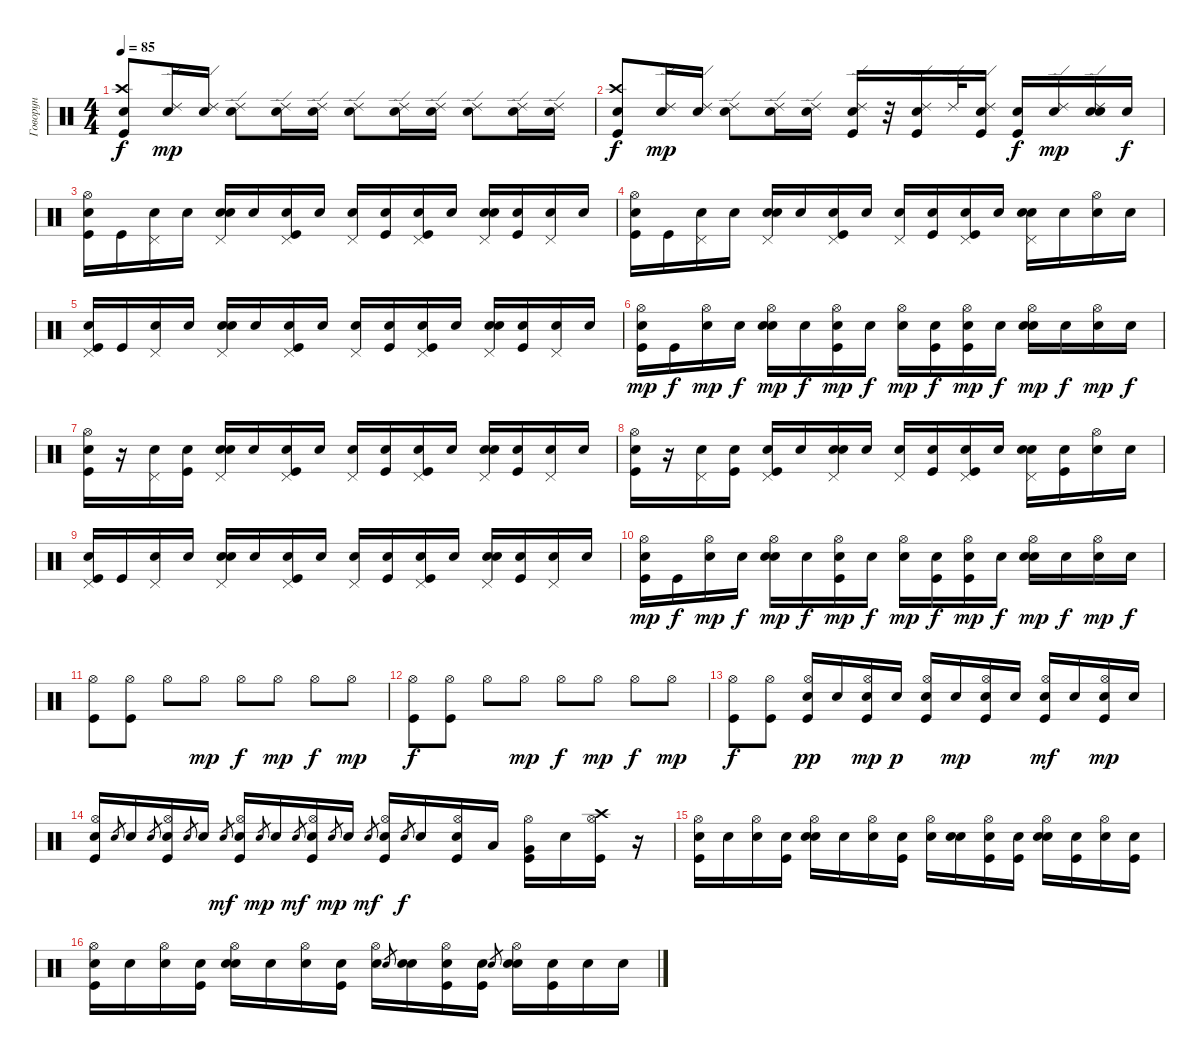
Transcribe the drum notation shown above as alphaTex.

\track ("Говорун" "Говорун") {instrument percussion}
\staff {score}
\articulation defaults
\ts (4 4)
\tempo 85
\clef neutral
\ks c
("Kick (hit)" "Crash high (hit)" "Snare (hit)"{x}).8{dy f} ("Ride (edge) 2" "Snare (hit)"{x}).16{dy mp} ("Ride (edge) 2" "Snare (hit)"{x}).16 ("Ride (edge) 2" "Snare (hit)"{x}).8 ("Ride (edge) 2" "Snare (hit)"{x}).16 ("Ride (edge) 2" "Snare (hit)"{x}).16 ("Ride (edge) 2" "Snare (hit)"{x}).8 ("Ride (edge) 2" "Snare (hit)"{x}).16 ("Ride (edge) 2" "Snare (hit)"{x}).16 ("Ride (edge) 2" "Snare (hit)"{x}).8 ("Ride (edge) 2" "Snare (hit)"{x}).16 ("Ride (edge) 2" "Snare (hit)"{x}).16 |
("Kick (hit)" "Crash high (hit)" "Snare (hit)"{x}).8{dy f} ("Ride (edge) 2" "Snare (hit)"{x}).16{dy mp} ("Ride (edge) 2" "Snare (hit)"{x}).16 ("Ride (edge) 2" "Snare (hit)"{x}).8 ("Ride (edge) 2" "Snare (hit)"{x}).16 ("Ride (edge) 2" "Snare (hit)"{x}).16 ("Kick (hit)" "Ride (edge) 2" "Snare (hit)"{x}).16 r.32 ("Kick (hit)" "Ride (edge) 2" "Snare (hit)"{x}).16 "Ride (edge) 2".32 ("Kick (hit)" "Ride (edge) 2" "Snare (hit)"{x}).16 ("Kick (hit)" "Snare (hit)"{x}).16{dy f} ("Ride (edge) 2" "Snare (hit)"{x}).16{dy mp} ("Snare (hit) 2" "Ride (edge) 2" "Snare (hit)"{x}).16 "Snare (hit)"{x}.16{dy f} |
("Snare (hit)"{x} "Hi-Hat (open)" "Kick (hit)").16 "Kick (hit)".16 ("Snare (hit)"{x} "Pedal Hi-Hat (hit)").16 "Snare (hit)"{x}.16 ("Snare (hit)"{x} "Pedal Hi-Hat (hit)" "Electric Snare (hit)").16 "Snare (hit)"{x}.16 ("Snare (hit)"{x} "Pedal Hi-Hat (hit)" "Kick (hit)").16 "Snare (hit)"{x}.16 ("Snare (hit)"{x} "Pedal Hi-Hat (hit)").16 ("Snare (hit)"{x} "Kick (hit)").16 ("Snare (hit)"{x} "Pedal Hi-Hat (hit)" "Kick (hit)").16 "Snare (hit)"{x}.16 ("Snare (hit)"{x} "Pedal Hi-Hat (hit)" "Electric Snare (hit)").16 ("Snare (hit)"{x} "Kick (hit)").16 ("Snare (hit)"{x} "Pedal Hi-Hat (hit)").16 "Snare (hit)"{x}.16 |
("Snare (hit)"{x} "Hi-Hat (open)" "Kick (hit)").16 "Kick (hit)".16 ("Snare (hit)"{x} "Pedal Hi-Hat (hit)").16 "Snare (hit)"{x}.16 ("Snare (hit)"{x} "Pedal Hi-Hat (hit)" "Electric Snare (hit)").16 "Snare (hit)"{x}.16 ("Snare (hit)"{x} "Pedal Hi-Hat (hit)" "Kick (hit)").16 "Snare (hit)"{x}.16 ("Snare (hit)"{x} "Pedal Hi-Hat (hit)").16 ("Snare (hit)"{x} "Kick (hit)").16 ("Snare (hit)"{x} "Pedal Hi-Hat (hit)" "Kick (hit)").16 "Snare (hit)"{x}.16 ("Snare (hit)"{x} "Pedal Hi-Hat (hit)" "Electric Snare (hit)").16 "Snare (hit)"{x}.16 ("Snare (hit)"{x} "Hi-Hat (open)").16 "Snare (hit)"{x}.16 |
("Snare (hit)"{x} "Pedal Hi-Hat (hit)" "Kick (hit)").16 "Kick (hit)".16 ("Snare (hit)"{x} "Pedal Hi-Hat (hit)").16 "Snare (hit)"{x}.16 ("Snare (hit)"{x} "Pedal Hi-Hat (hit)" "Electric Snare (hit)").16 "Snare (hit)"{x}.16 ("Snare (hit)"{x} "Pedal Hi-Hat (hit)" "Kick (hit)").16 "Snare (hit)"{x}.16 ("Snare (hit)"{x} "Pedal Hi-Hat (hit)").16 ("Snare (hit)"{x} "Kick (hit)").16 ("Snare (hit)"{x} "Pedal Hi-Hat (hit)" "Kick (hit)").16 "Snare (hit)"{x}.16 ("Snare (hit)"{x} "Pedal Hi-Hat (hit)" "Electric Snare (hit)").16 ("Snare (hit)"{x} "Kick (hit)").16 ("Snare (hit)"{x} "Pedal Hi-Hat (hit)").16 "Snare (hit)"{x}.16 |
("Snare (hit)"{x} "Hi-Hat (open)" "Kick (hit)").16{dy mp} "Kick (hit)".16{dy f} ("Snare (hit)"{x} "Hi-Hat (open)").16{dy mp} "Snare (hit)"{x}.16{dy f} ("Snare (hit)"{x} "Hi-Hat (open)" "Electric Snare (hit)").16{dy mp} "Snare (hit)"{x}.16{dy f} ("Snare (hit)"{x} "Hi-Hat (open)" "Kick (hit)").16{dy mp} "Snare (hit)"{x}.16{dy f} ("Snare (hit)"{x} "Hi-Hat (open)").16{dy mp} ("Snare (hit)"{x} "Kick (hit)").16{dy f} ("Snare (hit)"{x} "Hi-Hat (open)" "Kick (hit)").16{dy mp} "Snare (hit)"{x}.16{dy f} ("Snare (hit)"{x} "Hi-Hat (open)" "Electric Snare (hit)").16{dy mp} "Snare (hit)"{x}.16{dy f} ("Snare (hit)"{x} "Hi-Hat (open)").16{dy mp} "Snare (hit)"{x}.16{dy f} |
("Snare (hit)"{x} "Hi-Hat (open)" "Kick (hit)").16 r.16 ("Snare (hit)"{x} "Pedal Hi-Hat (hit)").16 ("Snare (hit)"{x} "Kick (hit)").16 ("Snare (hit)"{x} "Pedal Hi-Hat (hit)" "Electric Snare (hit)").16 "Snare (hit)"{x}.16 ("Snare (hit)"{x} "Pedal Hi-Hat (hit)" "Kick (hit)").16 "Snare (hit)"{x}.16 ("Snare (hit)"{x} "Pedal Hi-Hat (hit)").16 ("Snare (hit)"{x} "Kick (hit)").16 ("Snare (hit)"{x} "Pedal Hi-Hat (hit)" "Kick (hit)").16 "Snare (hit)"{x}.16 ("Snare (hit)"{x} "Pedal Hi-Hat (hit)" "Electric Snare (hit)").16 ("Snare (hit)"{x} "Kick (hit)").16 ("Snare (hit)"{x} "Pedal Hi-Hat (hit)").16 "Snare (hit)"{x}.16 |
("Snare (hit)"{x} "Hi-Hat (open)" "Kick (hit)").16 r.16 ("Snare (hit)"{x} "Pedal Hi-Hat (hit)").16 ("Snare (hit)"{x} "Kick (hit)").16 ("Snare (hit)"{x} "Pedal Hi-Hat (hit)" "Kick (hit)").16 "Snare (hit)"{x}.16 ("Snare (hit)"{x} "Pedal Hi-Hat (hit)" "Snare (hit) 2").16 "Snare (hit)"{x}.16 ("Snare (hit)"{x} "Pedal Hi-Hat (hit)").16 ("Snare (hit)"{x} "Kick (hit)").16 ("Snare (hit)"{x} "Pedal Hi-Hat (hit)" "Kick (hit)").16 "Snare (hit)"{x}.16 ("Snare (hit)"{x} "Pedal Hi-Hat (hit)" "Snare (hit) 2").16 ("Snare (hit)"{x} "Kick (hit)").16 ("Snare (hit)"{x} "Hi-Hat (open)").16 "Snare (hit)"{x}.16 |
("Snare (hit)"{x} "Pedal Hi-Hat (hit)" "Kick (hit)").16 "Kick (hit)".16 ("Snare (hit)"{x} "Pedal Hi-Hat (hit)").16 "Snare (hit)"{x}.16 ("Snare (hit)"{x} "Pedal Hi-Hat (hit)" "Electric Snare (hit)").16 "Snare (hit)"{x}.16 ("Snare (hit)"{x} "Pedal Hi-Hat (hit)" "Kick (hit)").16 "Snare (hit)"{x}.16 ("Snare (hit)"{x} "Pedal Hi-Hat (hit)").16 ("Snare (hit)"{x} "Kick (hit)").16 ("Snare (hit)"{x} "Pedal Hi-Hat (hit)" "Kick (hit)").16 "Snare (hit)"{x}.16 ("Snare (hit)"{x} "Pedal Hi-Hat (hit)" "Electric Snare (hit)").16 ("Snare (hit)"{x} "Kick (hit)").16 ("Snare (hit)"{x} "Pedal Hi-Hat (hit)").16 "Snare (hit)"{x}.16 |
("Snare (hit)"{x} "Hi-Hat (open)" "Kick (hit)").16{dy mp} "Kick (hit)".16{dy f} ("Snare (hit)"{x} "Hi-Hat (open)").16{dy mp} "Snare (hit)"{x}.16{dy f} ("Snare (hit)"{x} "Hi-Hat (open)" "Electric Snare (hit)").16{dy mp} "Snare (hit)"{x}.16{dy f} ("Snare (hit)"{x} "Hi-Hat (open)" "Kick (hit)").16{dy mp} "Snare (hit)"{x}.16{dy f} ("Snare (hit)"{x} "Hi-Hat (open)").16{dy mp} ("Snare (hit)"{x} "Kick (hit)").16{dy f} ("Snare (hit)"{x} "Hi-Hat (open)" "Kick (hit)").16{dy mp} "Snare (hit)"{x}.16{dy f} ("Snare (hit)"{x} "Hi-Hat (open)" "Electric Snare (hit)").16{dy mp} "Snare (hit)"{x}.16{dy f} ("Snare (hit)"{x} "Hi-Hat (open)").16{dy mp} "Snare (hit)"{x}.16{dy f} |
("Hi-Hat (open)" "Kick (hit)").8 ("Hi-Hat (open)" "Kick (hit)").8 "Hi-Hat (open)".8 "Hi-Hat (open)".8{dy mp} "Hi-Hat (open)".8{dy f} "Hi-Hat (open)".8{dy mp} "Hi-Hat (open)".8{dy f} "Hi-Hat (open)".8{dy mp} |
("Hi-Hat (open)" "Kick (hit)").8{dy f} ("Hi-Hat (open)" "Kick (hit)").8 "Hi-Hat (open)".8 "Hi-Hat (open)".8{dy mp} "Hi-Hat (open)".8{dy f} "Hi-Hat (open)".8{dy mp} "Hi-Hat (open)".8{dy f} "Hi-Hat (open)".8{dy mp} |
("Hi-Hat (open)" "Kick (hit)").8{dy f} ("Hi-Hat (open)" "Kick (hit)").8 ("Kick (hit)" "Electric Snare (hit)" "Hi-Hat (open)").16{dy pp} "Electric Snare (hit)".16 ("Kick (hit)" "Electric Snare (hit)" "Hi-Hat (open)").16{dy mp} "Electric Snare (hit)".16{dy p} ("Kick (hit)" "Electric Snare (hit)" "Hi-Hat (open)").16 "Electric Snare (hit)".16{dy mp} ("Kick (hit)" "Electric Snare (hit)" "Hi-Hat (open)").16 "Electric Snare (hit)".16 ("Kick (hit)" "Electric Snare (hit)" "Hi-Hat (open)").16{dy mf} "Electric Snare (hit)".16 ("Kick (hit)" "Electric Snare (hit)" "Hi-Hat (open)").16{dy mp} "Electric Snare (hit)".16 |
("Kick (hit)" "Electric Snare (hit)" "Hi-Hat (open)").16 "Electric Snare (hit)".8{gr} "Electric Snare (hit)".16 "Electric Snare (hit)".8{gr} ("Kick (hit)" "Electric Snare (hit)" "Hi-Hat (open)").16 "Electric Snare (hit)".8{gr} "Electric Snare (hit)".16 "Electric Snare (hit)".8{gr dy mf} ("Kick (hit)" "Electric Snare (hit)" "Hi-Hat (open)").16 "Electric Snare (hit)".8{gr dy mp} "Electric Snare (hit)".16 "Electric Snare (hit)".8{gr dy mf} ("Kick (hit)" "Electric Snare (hit)" "Hi-Hat (open)").16 "Electric Snare (hit)".8{gr dy mp} "Electric Snare (hit)".16 "Electric Snare (hit)".8{gr dy mf} ("Kick (hit)" "Electric Snare (hit)" "Hi-Hat (open)").16 "Electric Snare (hit)".8{gr dy f} "Electric Snare (hit)".16 ("Kick (hit)" "Electric Snare (hit)" "Hi-Hat (open)").16 "Low Tom (hit)".16 ("Kick (hit)" "Very Low Tom (hit)" "Hi-Hat (open)").16 "Electric Snare (hit)".16 ("Kick (hit)" "Crash high (hit)" "Hi-Hat (open)").16 r.16 |
("Kick (hit)" "Hi-Hat (open)" "Snare (hit)"{x}).16 "Snare (hit)"{x}.16 ("Hi-Hat (open)" "Snare (hit)"{x}).16 ("Kick (hit)" "Snare (hit)"{x}).16 ("Snare (hit) 2" "Hi-Hat (open)" "Snare (hit)"{x}).16 "Snare (hit)"{x}.16 ("Hi-Hat (open)" "Snare (hit)"{x}).16 ("Kick (hit)" "Snare (hit)"{x}).16 ("Hi-Hat (open)" "Snare (hit)"{x}).16 ("Snare (hit) 2" "Snare (hit)"{x}).16 ("Kick (hit)" "Hi-Hat (open)" "Snare (hit)"{x}).16 ("Kick (hit)" "Snare (hit)"{x}).16 ("Snare (hit) 2" "Hi-Hat (open)" "Snare (hit)"{x}).16 ("Kick (hit)" "Snare (hit)"{x}).16 ("Hi-Hat (open)" "Snare (hit)"{x}).16 ("Kick (hit)" "Snare (hit)"{x}).16 |
("Kick (hit)" "Hi-Hat (open)" "Snare (hit)"{x}).16 "Snare (hit)"{x}.16 ("Hi-Hat (open)" "Snare (hit)"{x}).16 ("Kick (hit)" "Snare (hit)"{x}).16 ("Snare (hit) 2" "Hi-Hat (open)" "Snare (hit)"{x}).16 "Snare (hit)"{x}.16 ("Hi-Hat (open)" "Snare (hit)"{x}).16 ("Kick (hit)" "Snare (hit)"{x}).16 ("Hi-Hat (open)" "Snare (hit)"{x}).16 "Snare (hit) 2".8{gr} ("Snare (hit) 2" "Snare (hit)"{x}).16 ("Kick (hit)" "Hi-Hat (open)" "Snare (hit)"{x}).16 ("Kick (hit)" "Snare (hit)"{x}).16 "Snare (hit) 2".8{gr} ("Snare (hit) 2" "Hi-Hat (open)" "Snare (hit)"{x}).16 ("Kick (hit)" "Snare (hit)"{x}).16 "Snare (hit)"{x}.16 "Snare (hit)"{x}.16
